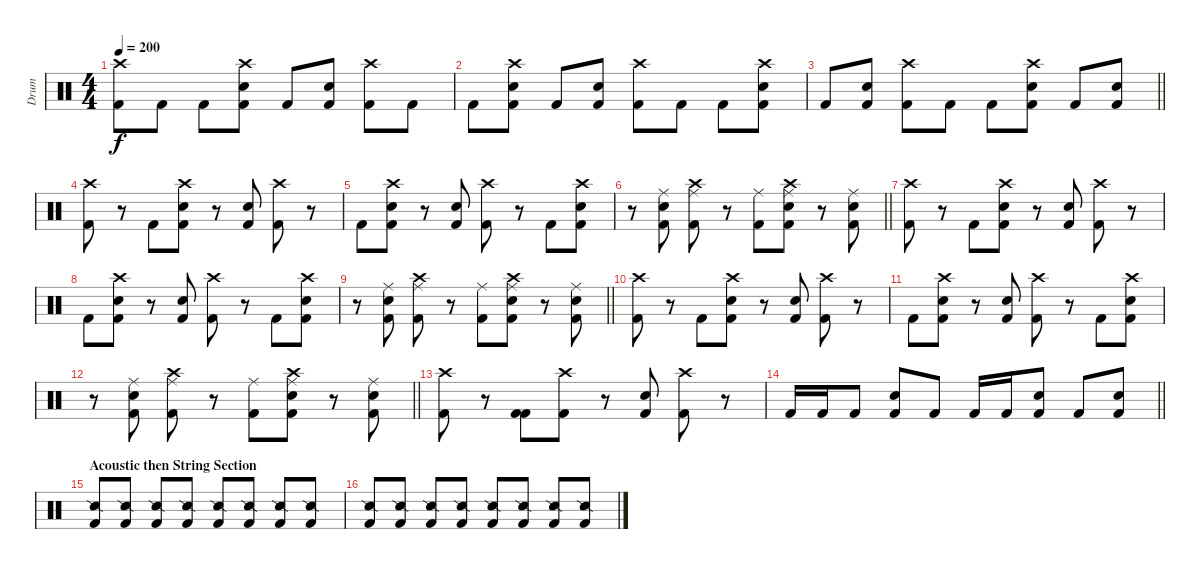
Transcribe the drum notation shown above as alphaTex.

\track ("Drum" "Drum") {instrument percussion}
\staff {score}
\articulation defaults
\ts (4 4)
\tempo 200
\clef neutral
\ks c
("Crash high (hit)" "Kick (hit) 2").8{dy f} "Kick (hit) 2".8 "Kick (hit) 2".8 ("Snare (hit) 2" "Crash high (hit)" "Kick (hit) 2").8 "Kick (hit) 2".8 ("Snare (hit) 2" "Kick (hit) 2").8 ("Crash high (hit)" "Kick (hit) 2").8 "Kick (hit) 2".8 |
"Kick (hit) 2".8 ("Snare (hit) 2" "Crash high (hit)" "Kick (hit) 2").8 "Kick (hit) 2".8 ("Snare (hit) 2" "Kick (hit) 2").8 ("Crash high (hit)" "Kick (hit) 2").8 "Kick (hit) 2".8 "Kick (hit) 2".8 ("Snare (hit) 2" "Crash high (hit)" "Kick (hit) 2").8 |
\barLineRight lightlight "Kick (hit) 2".8
("Snare (hit) 2" "Kick (hit) 2").8 ("Crash high (hit)" "Kick (hit) 2").8 "Kick (hit) 2".8 "Kick (hit) 2".8 ("Snare (hit) 2" "Crash high (hit)" "Kick (hit) 2").8 "Kick (hit) 2".8 ("Snare (hit) 2" "Kick (hit) 2").8 |
\section ("" " ")
("Crash high (hit)" "Kick (hit) 2").8 r.8 "Kick (hit) 2".8 ("Snare (hit) 2" "Crash high (hit)" "Kick (hit) 2").8 r.8 ("Snare (hit) 2" "Kick (hit) 2").8 ("Crash high (hit)" "Kick (hit) 2").8 r.8 |
"Kick (hit) 2".8 ("Snare (hit) 2" "Crash high (hit)" "Kick (hit) 2").8 r.8 ("Snare (hit) 2" "Kick (hit) 2").8 ("Crash high (hit)" "Kick (hit) 2").8 r.8 "Kick (hit) 2".8 ("Snare (hit) 2" "Crash high (hit)" "Kick (hit) 2").8 |
\barLineRight lightlight
r.8 ("Snare (hit) 2" "Ride (middle)" "Kick (hit) 2").8 ("Crash high (hit)" "Ride (middle)" "Kick (hit) 2").8 r.8 ("Ride (middle)" "Kick (hit) 2").8 ("Snare (hit) 2" "Crash high (hit)" "Ride (middle)" "Kick (hit) 2").8 r.8 ("Snare (hit) 2" "Ride (middle)" "Kick (hit) 2").8 |
("Crash high (hit)" "Kick (hit) 2").8 r.8 "Kick (hit) 2".8 ("Snare (hit) 2" "Crash high (hit)" "Kick (hit) 2").8 r.8 ("Snare (hit) 2" "Kick (hit) 2").8 ("Crash high (hit)" "Kick (hit) 2").8 r.8 |
"Kick (hit) 2".8 ("Snare (hit) 2" "Crash high (hit)" "Kick (hit) 2").8 r.8 ("Snare (hit) 2" "Kick (hit) 2").8 ("Crash high (hit)" "Kick (hit) 2").8 r.8 "Kick (hit) 2".8 ("Snare (hit) 2" "Crash high (hit)" "Kick (hit) 2").8 |
\barLineRight lightlight
r.8 ("Snare (hit) 2" "Ride (middle)" "Kick (hit) 2").8 ("Crash high (hit)" "Ride (middle)" "Kick (hit) 2").8 r.8 ("Ride (middle)" "Kick (hit) 2").8 ("Snare (hit) 2" "Crash high (hit)" "Ride (middle)" "Kick (hit) 2").8 r.8 ("Snare (hit) 2" "Ride (middle)" "Kick (hit) 2").8 |
("Crash high (hit)" "Kick (hit) 2").8 r.8 "Kick (hit) 2".8 ("Snare (hit) 2" "Crash high (hit)" "Kick (hit) 2").8 r.8 ("Snare (hit) 2" "Kick (hit) 2").8 ("Crash high (hit)" "Kick (hit) 2").8 r.8 |
"Kick (hit) 2".8 ("Snare (hit) 2" "Crash high (hit)" "Kick (hit) 2").8 r.8 ("Snare (hit) 2" "Kick (hit) 2").8 ("Crash high (hit)" "Kick (hit) 2").8 r.8 "Kick (hit) 2".8 ("Snare (hit) 2" "Crash high (hit)" "Kick (hit) 2").8 |
\barLineRight lightlight
r.8 ("Snare (hit) 2" "Ride (middle)" "Kick (hit) 2").8 ("Crash high (hit)" "Ride (middle)" "Kick (hit) 2").8 r.8 ("Ride (middle)" "Kick (hit) 2").8 ("Snare (hit) 2" "Crash high (hit)" "Ride (middle)" "Kick (hit) 2").8 r.8 ("Snare (hit) 2" "Ride (middle)" "Kick (hit) 2").8 |
("Crash high (hit)" "Kick (hit) 2").8 r.8 ("Kick (hit) 2" "Kick (hit) 2").8 ("Crash high (hit)" "Kick (hit) 2").8 r.8 ("Snare (hit) 2" "Kick (hit) 2").8 ("Crash high (hit)" "Kick (hit) 2").8 r.8 |
\barLineRight lightlight "Kick (hit) 2".16 "Kick (hit) 2".16 "Kick (hit) 2".8
("Electric Snare (hit)" "Kick (hit) 2").8 "Kick (hit) 2".8 "Kick (hit) 2".16 "Kick (hit) 2".16 ("Electric Snare (hit)" "Kick (hit) 2").8 "Kick (hit) 2".8 ("Electric Snare (hit)" "Kick (hit) 2").8 |
\section ("" "Acoustic then String Section")
("Snare (side stick) 2" "Kick (hit) 2").8 ("Snare (side stick) 2" "Kick (hit) 2").8 ("Snare (side stick) 2" "Kick (hit) 2").8 ("Snare (side stick) 2" "Kick (hit) 2").8 ("Snare (side stick) 2" "Kick (hit) 2").8 ("Snare (side stick) 2" "Kick (hit) 2").8 ("Snare (side stick) 2" "Kick (hit) 2").8 ("Snare (side stick) 2" "Kick (hit) 2").8 |
("Snare (side stick) 2" "Kick (hit) 2").8 ("Snare (side stick) 2" "Kick (hit) 2").8 ("Snare (side stick) 2" "Kick (hit) 2").8 ("Snare (side stick) 2" "Kick (hit) 2").8 ("Snare (side stick) 2" "Kick (hit) 2").8 ("Snare (side stick) 2" "Kick (hit) 2").8 ("Snare (side stick) 2" "Kick (hit) 2").8 ("Snare (side stick) 2" "Kick (hit) 2").8
